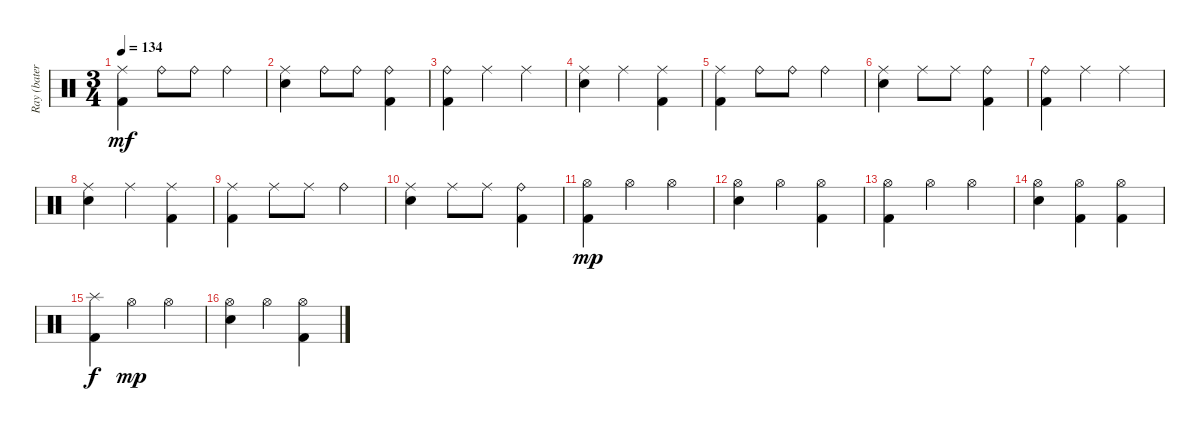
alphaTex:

\track ("Ray (batería)" "Ray (bater") {instrument percussion}
\staff {score}
\articulation defaults
\ts (3 4)
\tempo 134
\clef neutral
\ks c
("Ride (middle)" "Kick (hit) 2").4{dy mf} "Ride (bell)".8 "Ride (bell)".8 "Ride (bell)".4 |
("Ride (middle)" "Snare (hit) 2").4 "Ride (bell)".8 "Ride (bell)".8 ("Ride (bell)" "Kick (hit) 2").4 |
("Ride (bell)" "Kick (hit) 2").4 "Ride (middle)".4 "Ride (middle)".4 |
("Ride (middle)" "Snare (hit) 2").4 "Ride (middle)".4 ("Ride (middle)" "Kick (hit) 2").4 |
("Ride (middle)" "Kick (hit) 2").4 "Ride (bell)".8 "Ride (bell)".8 "Ride (bell)".4 |
("Ride (middle)" "Snare (hit) 2").4 "Ride (middle)".8 "Ride (middle)".8 ("Ride (bell)" "Kick (hit) 2").4 |
("Ride (bell)" "Kick (hit) 2").4 "Ride (middle)".4 "Ride (middle)".4 |
("Ride (middle)" "Snare (hit) 2").4 "Ride (middle)".4 ("Ride (middle)" "Kick (hit) 2").4 |
("Ride (middle)" "Kick (hit) 2").4 "Ride (middle)".8 "Ride (middle)".8 "Ride (bell)".4 |
("Ride (middle)" "Snare (hit) 2").4 "Ride (middle)".8 "Ride (middle)".8 ("Ride (bell)" "Kick (hit) 2").4 |
("Hi-Hat (open)" "Kick (hit) 2").4{dy mp} "Hi-Hat (open)".4 "Hi-Hat (open)".4 |
("Hi-Hat (open)" "Snare (hit) 2").4 "Hi-Hat (open)".4 ("Hi-Hat (open)" "Kick (hit) 2").4 |
("Hi-Hat (open)" "Kick (hit) 2").4 "Hi-Hat (open)".4 "Hi-Hat (open)".4 |
("Hi-Hat (open)" "Snare (hit) 2").4 ("Hi-Hat (open)" "Kick (hit) 2").4 ("Hi-Hat (open)" "Kick (hit) 2").4 |
("Splash (hit)" "Kick (hit) 2").4{dy f} "Hi-Hat (open)".4{dy mp} "Hi-Hat (open)".4 |
("Hi-Hat (open)" "Snare (hit) 2").4 "Hi-Hat (open)".4 ("Hi-Hat (open)" "Kick (hit) 2").4
